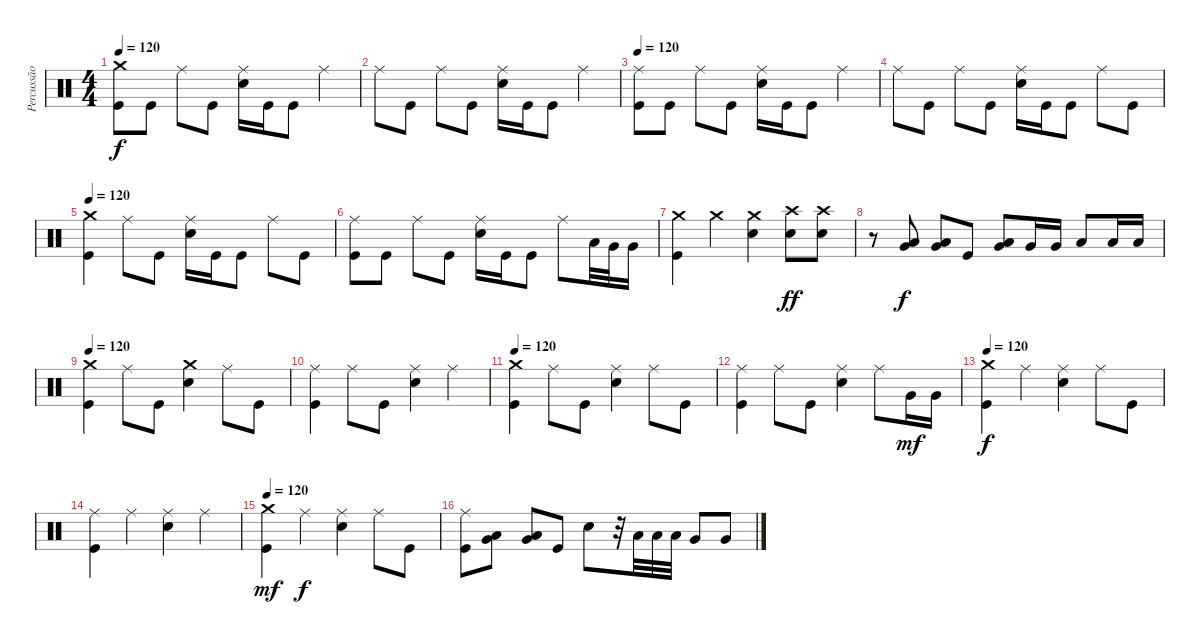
\track ("Percussão" "Percussão") {instrument percussion}
\staff {score}
\articulation defaults
\ts (4 4)
\tempo 120
\clef neutral
\ks c
("Kick (hit)" "Crash medium (hit)").8{dy f} "Kick (hit)".8 "Ride (middle)".8 "Kick (hit)".8 ("Electric Snare (hit)" "Ride (middle)").16 "Kick (hit)".16 "Kick (hit)".8 "Ride (middle)".4 |
"Ride (middle)".8 "Kick (hit)".8 "Ride (middle)".8 "Kick (hit)".8 ("Electric Snare (hit)" "Ride (middle)").16 "Kick (hit)".16 "Kick (hit)".8 "Ride (middle)".4 |
\tempo 120
("Kick (hit)" "Ride (middle)").8 "Kick (hit)".8 "Ride (middle)".8 "Kick (hit)".8 ("Electric Snare (hit)" "Ride (middle)").16 "Kick (hit)".16 "Kick (hit)".8 "Ride (middle)".4 |
"Ride (middle)".8 "Kick (hit)".8 "Ride (middle)".8 "Kick (hit)".8 ("Electric Snare (hit)" "Ride (middle)").16 "Kick (hit)".16 "Kick (hit)".8 "Ride (middle)".8 "Kick (hit)".8 |
\tempo 120
("Kick (hit)" "Crash medium (hit)").4 "Ride (middle)".8 "Kick (hit)".8 ("Electric Snare (hit)" "Ride (middle)").16 "Kick (hit)".16 "Kick (hit)".8 "Ride (middle)".8 "Kick (hit)".8 |
("Kick (hit)" "Ride (middle)").8 "Kick (hit)".8 "Ride (middle)".8 "Kick (hit)".8 ("Electric Snare (hit)" "Ride (middle)").16 "Kick (hit)".16 "Kick (hit)".8 "Ride (middle)".8 "Low Tom (hit)".32 "Very Low Tom (hit)".32 "Very Low Tom (hit)".16 |
("Kick (hit)" "Crash medium (hit)").4 "Crash medium (hit)".4 ("Electric Snare (hit)" "Crash medium (hit)").4 ("Electric Snare (hit)" "Crash high (hit)").8{dy ff} ("Electric Snare (hit)" "Crash high (hit)").8 |
r.8 ("Very Low Tom (hit)" "Low Floor Tom (hit)").8{dy f} ("Very Low Tom (hit)" "Low Floor Tom (hit)").8 "Kick (hit)".8 ("Very Low Tom (hit)" "Low Floor Tom (hit)").8 "Very Low Tom (hit)".16 "Very Low Tom (hit)".16 "Low Floor Tom (hit)".8 "Low Floor Tom (hit)".16 "Low Floor Tom (hit)".16 |
\tempo 120
("Crash medium (hit)" "Kick (hit)").4 "Ride (middle)".8 "Kick (hit)".8 ("Electric Snare (hit)" "Crash medium (hit)").4 "Ride (middle)".8 "Kick (hit)".8 |
("Kick (hit)" "Ride (middle)").4 "Ride (middle)".8 "Kick (hit)".8 ("Electric Snare (hit)" "Ride (middle)").4 "Ride (middle)".4 |
\tempo 120
("Kick (hit)" "Crash medium (hit)").4 "Ride (middle)".8 "Kick (hit)".8 ("Electric Snare (hit)" "Ride (middle)").4 "Ride (middle)".8 "Kick (hit)".8 |
("Kick (hit)" "Ride (middle)").4 "Ride (middle)".8 "Kick (hit)".8 ("Electric Snare (hit)" "Ride (middle)").4 "Ride (middle)".8 "Very Low Tom (hit)".16{dy mf} "Very Low Tom (hit)".16 |
\tempo 120
("Kick (hit)" "Crash medium (hit)").4{dy f} "Ride (middle)".4 ("Electric Snare (hit)" "Ride (middle)").4 "Ride (middle)".8 "Kick (hit)".8 |
("Kick (hit)" "Ride (middle)").4 "Ride (middle)".4 ("Electric Snare (hit)" "Ride (middle)").4 "Ride (middle)".4 |
\tempo 120
("Kick (hit)" "Crash medium (hit)").4{dy mf} "Ride (middle)".4{dy f} ("Electric Snare (hit)" "Ride (middle)").4 "Ride (middle)".8 "Kick (hit)".8 |
("Kick (hit)" "Ride (middle)").8 ("Very Low Tom (hit)" "Low Tom (hit)").8 ("Very Low Tom (hit)" "Low Tom (hit)").8 "Kick (hit)".8 "Electric Snare (hit)".8 r.32 "Low Tom (hit)".32 "Low Tom (hit)".32 "Low Tom (hit)".32 "Very Low Tom (hit)".8 "Very Low Tom (hit)".8
